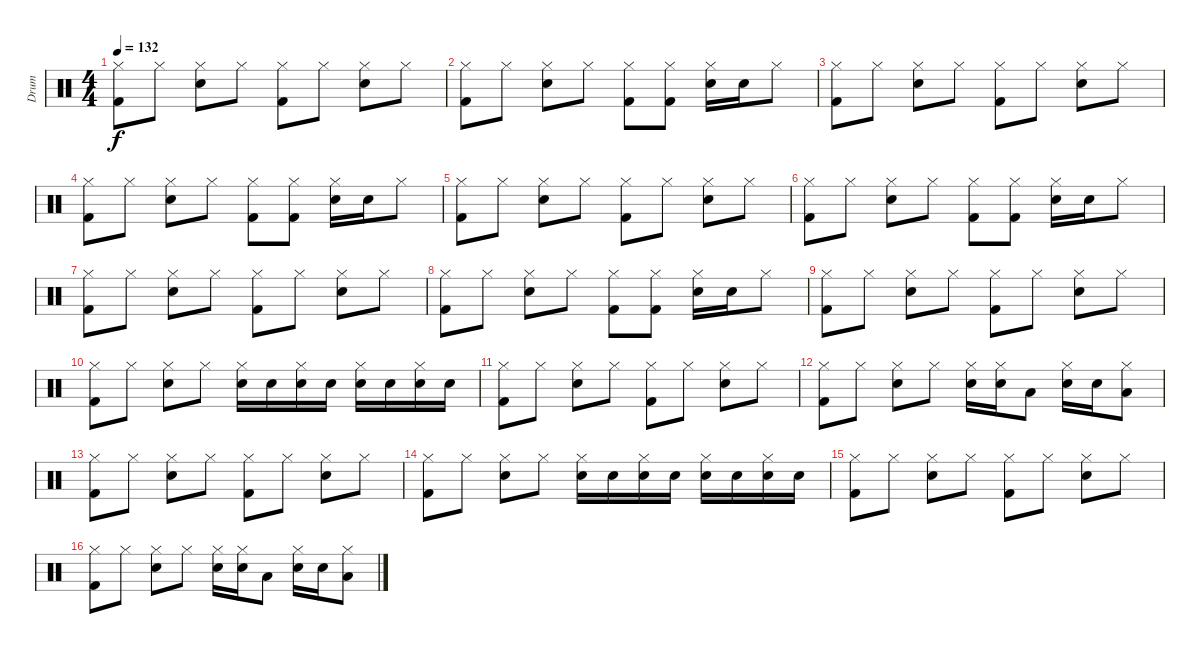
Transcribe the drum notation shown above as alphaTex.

\track ("Drum" "Drum") {instrument percussion}
\staff {score}
\articulation defaults
\ts (4 4)
\tempo 132
\clef neutral
\ks c
("Hi-Hat (closed)" "Kick (hit) 2").8{dy f} "Hi-Hat (closed)".8 ("Hi-Hat (closed)" "Electric Snare (hit)").8 "Hi-Hat (closed)".8 ("Hi-Hat (closed)" "Kick (hit) 2").8 "Hi-Hat (closed)".8 ("Hi-Hat (closed)" "Electric Snare (hit)").8 "Hi-Hat (closed)".8 |
("Hi-Hat (closed)" "Kick (hit) 2").8 "Hi-Hat (closed)".8 ("Hi-Hat (closed)" "Electric Snare (hit)").8 "Hi-Hat (closed)".8 ("Hi-Hat (closed)" "Kick (hit) 2").8 ("Hi-Hat (closed)" "Kick (hit) 2").8 ("Hi-Hat (closed)" "Electric Snare (hit)").16 "Electric Snare (hit)".16 "Hi-Hat (closed)".8 |
("Hi-Hat (closed)" "Kick (hit) 2").8 "Hi-Hat (closed)".8 ("Hi-Hat (closed)" "Electric Snare (hit)").8 "Hi-Hat (closed)".8 ("Hi-Hat (closed)" "Kick (hit) 2").8 "Hi-Hat (closed)".8 ("Hi-Hat (closed)" "Electric Snare (hit)").8 "Hi-Hat (closed)".8 |
("Hi-Hat (closed)" "Kick (hit) 2").8 "Hi-Hat (closed)".8 ("Hi-Hat (closed)" "Electric Snare (hit)").8 "Hi-Hat (closed)".8 ("Hi-Hat (closed)" "Kick (hit) 2").8 ("Hi-Hat (closed)" "Kick (hit) 2").8 ("Hi-Hat (closed)" "Electric Snare (hit)").16 "Electric Snare (hit)".16 "Hi-Hat (closed)".8 |
("Hi-Hat (closed)" "Kick (hit) 2").8 "Hi-Hat (closed)".8 ("Hi-Hat (closed)" "Electric Snare (hit)").8 "Hi-Hat (closed)".8 ("Hi-Hat (closed)" "Kick (hit) 2").8 "Hi-Hat (closed)".8 ("Hi-Hat (closed)" "Electric Snare (hit)").8 "Hi-Hat (closed)".8 |
("Hi-Hat (closed)" "Kick (hit) 2").8 "Hi-Hat (closed)".8 ("Hi-Hat (closed)" "Electric Snare (hit)").8 "Hi-Hat (closed)".8 ("Hi-Hat (closed)" "Kick (hit) 2").8 ("Hi-Hat (closed)" "Kick (hit) 2").8 ("Hi-Hat (closed)" "Electric Snare (hit)").16 "Electric Snare (hit)".16 "Hi-Hat (closed)".8 |
("Hi-Hat (closed)" "Kick (hit) 2").8 "Hi-Hat (closed)".8 ("Hi-Hat (closed)" "Electric Snare (hit)").8 "Hi-Hat (closed)".8 ("Hi-Hat (closed)" "Kick (hit) 2").8 "Hi-Hat (closed)".8 ("Hi-Hat (closed)" "Electric Snare (hit)").8 "Hi-Hat (closed)".8 |
("Hi-Hat (closed)" "Kick (hit) 2").8 "Hi-Hat (closed)".8 ("Hi-Hat (closed)" "Electric Snare (hit)").8 "Hi-Hat (closed)".8 ("Hi-Hat (closed)" "Kick (hit) 2").8 ("Hi-Hat (closed)" "Kick (hit) 2").8 ("Hi-Hat (closed)" "Electric Snare (hit)").16 "Electric Snare (hit)".16 "Hi-Hat (closed)".8 |
("Hi-Hat (closed)" "Kick (hit) 2").8 "Hi-Hat (closed)".8 ("Hi-Hat (closed)" "Electric Snare (hit)").8 "Hi-Hat (closed)".8 ("Hi-Hat (closed)" "Kick (hit) 2").8 "Hi-Hat (closed)".8 ("Hi-Hat (closed)" "Electric Snare (hit)").8 "Hi-Hat (closed)".8 |
("Hi-Hat (closed)" "Kick (hit) 2").8 "Hi-Hat (closed)".8 ("Hi-Hat (closed)" "Electric Snare (hit)").8 "Hi-Hat (closed)".8 ("Hi-Hat (closed)" "Electric Snare (hit)").16 "Electric Snare (hit)".16 ("Hi-Hat (closed)" "Electric Snare (hit)").16 "Electric Snare (hit)".16 ("Hi-Hat (closed)" "Electric Snare (hit)").16 "Electric Snare (hit)".16 ("Hi-Hat (closed)" "Electric Snare (hit)").16 "Electric Snare (hit)".16 |
("Hi-Hat (closed)" "Kick (hit) 2").8 "Hi-Hat (closed)".8 ("Hi-Hat (closed)" "Electric Snare (hit)").8 "Hi-Hat (closed)".8 ("Hi-Hat (closed)" "Kick (hit) 2").8 "Hi-Hat (closed)".8 ("Hi-Hat (closed)" "Electric Snare (hit)").8 "Hi-Hat (closed)".8 |
("Hi-Hat (closed)" "Kick (hit) 2").8 "Hi-Hat (closed)".8 ("Hi-Hat (closed)" "Electric Snare (hit)").8 "Hi-Hat (closed)".8 ("Hi-Hat (closed)" "Electric Snare (hit)").16 ("Hi-Hat (closed)" "Electric Snare (hit)").16 "Low Floor Tom (hit)".8 ("Hi-Hat (closed)" "Electric Snare (hit)").16 "Electric Snare (hit)".16 ("Hi-Hat (closed)" "Low Tom (hit)").8 |
("Hi-Hat (closed)" "Kick (hit) 2").8 "Hi-Hat (closed)".8 ("Hi-Hat (closed)" "Electric Snare (hit)").8 "Hi-Hat (closed)".8 ("Hi-Hat (closed)" "Kick (hit) 2").8 "Hi-Hat (closed)".8 ("Hi-Hat (closed)" "Electric Snare (hit)").8 "Hi-Hat (closed)".8 |
("Hi-Hat (closed)" "Kick (hit) 2").8 "Hi-Hat (closed)".8 ("Hi-Hat (closed)" "Electric Snare (hit)").8 "Hi-Hat (closed)".8 ("Hi-Hat (closed)" "Electric Snare (hit)").16 "Electric Snare (hit)".16 ("Hi-Hat (closed)" "Electric Snare (hit)").16 "Electric Snare (hit)".16 ("Hi-Hat (closed)" "Electric Snare (hit)").16 "Electric Snare (hit)".16 ("Hi-Hat (closed)" "Electric Snare (hit)").16 "Electric Snare (hit)".16 |
("Hi-Hat (closed)" "Kick (hit) 2").8 "Hi-Hat (closed)".8 ("Hi-Hat (closed)" "Electric Snare (hit)").8 "Hi-Hat (closed)".8 ("Hi-Hat (closed)" "Kick (hit) 2").8 "Hi-Hat (closed)".8 ("Hi-Hat (closed)" "Electric Snare (hit)").8 "Hi-Hat (closed)".8 |
("Hi-Hat (closed)" "Kick (hit) 2").8 "Hi-Hat (closed)".8 ("Hi-Hat (closed)" "Electric Snare (hit)").8 "Hi-Hat (closed)".8 ("Hi-Hat (closed)" "Electric Snare (hit)").16 ("Hi-Hat (closed)" "Electric Snare (hit)").16 "Low Floor Tom (hit)".8 ("Hi-Hat (closed)" "Electric Snare (hit)").16 "Electric Snare (hit)".16 ("Hi-Hat (closed)" "Low Tom (hit)").8
